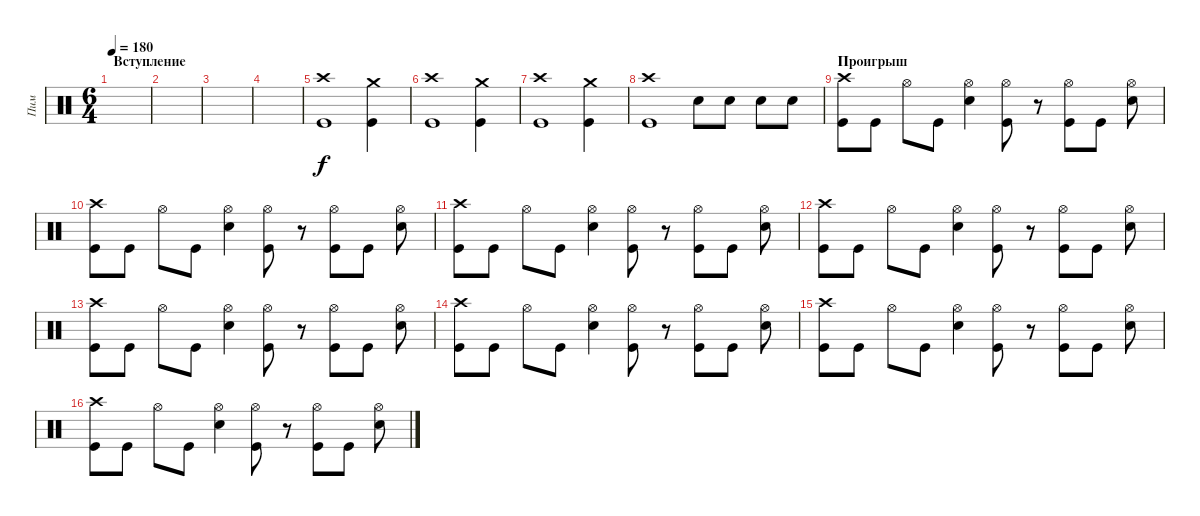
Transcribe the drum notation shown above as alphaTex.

\track ("Пим" "Пим") {instrument percussion}
\staff {score}
\articulation defaults
\ts (6 4)
\section ("" "Вступление")
\tempo 180
\clef neutral
\ks c
|
|
|
|
("Crash high (hit)" "Kick (hit)").1 ("Crash medium (hit)" "Kick (hit)").4 |
("Crash high (hit)" "Kick (hit)").1 ("Crash medium (hit)" "Kick (hit)").4 |
("Crash high (hit)" "Kick (hit)").1 ("Crash medium (hit)" "Kick (hit)").4 |
("Crash high (hit)" "Kick (hit)").1 "Snare (hit) 2".8 "Snare (hit) 2".8 "Snare (hit) 2".8 "Snare (hit) 2".8 |
\section ("" "Проигрыш")
("Crash high (hit)" "Kick (hit)").8 "Kick (hit)".8 "Hi-Hat (open)".8 "Kick (hit)".8 ("Hi-Hat (open)" "Snare (hit) 2").4 ("Hi-Hat (open)" "Kick (hit)").8 r.8 ("Hi-Hat (open)" "Kick (hit)").8 "Kick (hit)".8 ("Hi-Hat (open)" "Snare (hit) 2").8 |
("Crash high (hit)" "Kick (hit)").8 "Kick (hit)".8 "Hi-Hat (open)".8 "Kick (hit)".8 ("Hi-Hat (open)" "Snare (hit) 2").4 ("Hi-Hat (open)" "Kick (hit)").8 r.8 ("Hi-Hat (open)" "Kick (hit)").8 "Kick (hit)".8 ("Hi-Hat (open)" "Snare (hit) 2").8 |
("Crash high (hit)" "Kick (hit)").8 "Kick (hit)".8 "Hi-Hat (open)".8 "Kick (hit)".8 ("Hi-Hat (open)" "Snare (hit) 2").4 ("Hi-Hat (open)" "Kick (hit)").8 r.8 ("Hi-Hat (open)" "Kick (hit)").8 "Kick (hit)".8 ("Hi-Hat (open)" "Snare (hit) 2").8 |
("Crash high (hit)" "Kick (hit)").8 "Kick (hit)".8 "Hi-Hat (open)".8 "Kick (hit)".8 ("Hi-Hat (open)" "Snare (hit) 2").4 ("Hi-Hat (open)" "Kick (hit)").8 r.8 ("Hi-Hat (open)" "Kick (hit)").8 "Kick (hit)".8 ("Hi-Hat (open)" "Snare (hit) 2").8 |
("Crash high (hit)" "Kick (hit)").8 "Kick (hit)".8 "Hi-Hat (open)".8 "Kick (hit)".8 ("Hi-Hat (open)" "Snare (hit) 2").4 ("Hi-Hat (open)" "Kick (hit)").8 r.8 ("Hi-Hat (open)" "Kick (hit)").8 "Kick (hit)".8 ("Hi-Hat (open)" "Snare (hit) 2").8 |
("Crash high (hit)" "Kick (hit)").8 "Kick (hit)".8 "Hi-Hat (open)".8 "Kick (hit)".8 ("Hi-Hat (open)" "Snare (hit) 2").4 ("Hi-Hat (open)" "Kick (hit)").8 r.8 ("Hi-Hat (open)" "Kick (hit)").8 "Kick (hit)".8 ("Hi-Hat (open)" "Snare (hit) 2").8 |
("Crash high (hit)" "Kick (hit)").8 "Kick (hit)".8 "Hi-Hat (open)".8 "Kick (hit)".8 ("Hi-Hat (open)" "Snare (hit) 2").4 ("Hi-Hat (open)" "Kick (hit)").8 r.8 ("Hi-Hat (open)" "Kick (hit)").8 "Kick (hit)".8 ("Hi-Hat (open)" "Snare (hit) 2").8 |
("Crash high (hit)" "Kick (hit)").8 "Kick (hit)".8 "Hi-Hat (open)".8 "Kick (hit)".8 ("Hi-Hat (open)" "Snare (hit) 2").4 ("Hi-Hat (open)" "Kick (hit)").8 r.8 ("Hi-Hat (open)" "Kick (hit)").8 "Kick (hit)".8 ("Hi-Hat (open)" "Snare (hit) 2").8
